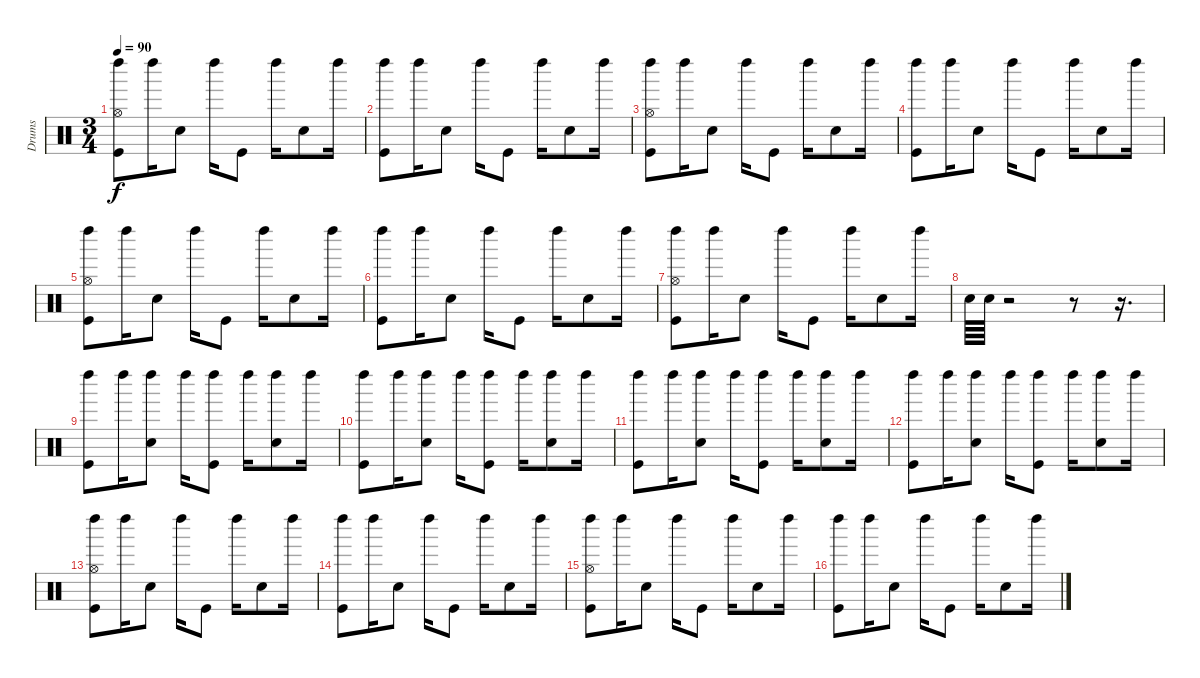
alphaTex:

\track ("Drums" "Drums") {instrument percussion}
\staff {score}
\articulation defaults
\ts (3 4)
\tempo 90
\clef neutral
\ks c
("Left Maraca (hit)" "Hi-Hat (open)" "Kick (hit)").8{dy f} "Left Maraca (hit)".16 "Snare (hit) 2".8 "Left Maraca (hit)".16 "Kick (hit)".8 "Left Maraca (hit)".16 "Snare (hit) 2".8 "Left Maraca (hit)".16 |
("Left Maraca (hit)" "Kick (hit)").8 "Left Maraca (hit)".16 "Snare (hit) 2".8 "Left Maraca (hit)".16 "Kick (hit)".8 "Left Maraca (hit)".16 "Snare (hit) 2".8 "Left Maraca (hit)".16 |
("Left Maraca (hit)" "Hi-Hat (open)" "Kick (hit)").8 "Left Maraca (hit)".16 "Snare (hit) 2".8 "Left Maraca (hit)".16 "Kick (hit)".8 "Left Maraca (hit)".16 "Snare (hit) 2".8 "Left Maraca (hit)".16 |
("Left Maraca (hit)" "Kick (hit)").8 "Left Maraca (hit)".16 "Snare (hit) 2".8 "Left Maraca (hit)".16 "Kick (hit)".8 "Left Maraca (hit)".16 "Snare (hit) 2".8 "Left Maraca (hit)".16 |
("Left Maraca (hit)" "Hi-Hat (open)" "Kick (hit)").8 "Left Maraca (hit)".16 "Snare (hit) 2".8 "Left Maraca (hit)".16 "Kick (hit)".8 "Left Maraca (hit)".16 "Snare (hit) 2".8 "Left Maraca (hit)".16 |
("Left Maraca (hit)" "Kick (hit)").8 "Left Maraca (hit)".16 "Snare (hit) 2".8 "Left Maraca (hit)".16 "Kick (hit)".8 "Left Maraca (hit)".16 "Snare (hit) 2".8 "Left Maraca (hit)".16 |
("Left Maraca (hit)" "Hi-Hat (open)" "Kick (hit)").8 "Left Maraca (hit)".16 "Snare (hit) 2".8 "Left Maraca (hit)".16 "Kick (hit)".8 "Left Maraca (hit)".16 "Snare (hit) 2".8 "Left Maraca (hit)".16 |
"Snare (hit) 2".64 "Snare (hit) 2".64 r.2 r.8 r.16{d} |
("Left Maraca (hit)" "Kick (hit)").8 "Left Maraca (hit)".16 ("Left Maraca (hit)" "Snare (hit) 2").8 "Left Maraca (hit)".16 ("Left Maraca (hit)" "Kick (hit)").8 "Left Maraca (hit)".16 ("Left Maraca (hit)" "Snare (hit) 2").8 "Left Maraca (hit)".16 |
("Left Maraca (hit)" "Kick (hit)").8 "Left Maraca (hit)".16 ("Left Maraca (hit)" "Snare (hit) 2").8 "Left Maraca (hit)".16 ("Left Maraca (hit)" "Kick (hit)").8 "Left Maraca (hit)".16 ("Left Maraca (hit)" "Snare (hit) 2").8 "Left Maraca (hit)".16 |
("Left Maraca (hit)" "Kick (hit)").8 "Left Maraca (hit)".16 ("Left Maraca (hit)" "Snare (hit) 2").8 "Left Maraca (hit)".16 ("Left Maraca (hit)" "Kick (hit)").8 "Left Maraca (hit)".16 ("Left Maraca (hit)" "Snare (hit) 2").8 "Left Maraca (hit)".16 |
("Left Maraca (hit)" "Kick (hit)").8 "Left Maraca (hit)".16 ("Left Maraca (hit)" "Snare (hit) 2").8 "Left Maraca (hit)".16 ("Left Maraca (hit)" "Kick (hit)").8 "Left Maraca (hit)".16 ("Left Maraca (hit)" "Snare (hit) 2").8 "Left Maraca (hit)".16 |
("Left Maraca (hit)" "Hi-Hat (open)" "Kick (hit)").8 "Left Maraca (hit)".16 "Snare (hit) 2".8 "Left Maraca (hit)".16 "Kick (hit)".8 "Left Maraca (hit)".16 "Snare (hit) 2".8 "Left Maraca (hit)".16 |
("Left Maraca (hit)" "Kick (hit)").8 "Left Maraca (hit)".16 "Snare (hit) 2".8 "Left Maraca (hit)".16 "Kick (hit)".8 "Left Maraca (hit)".16 "Snare (hit) 2".8 "Left Maraca (hit)".16 |
("Left Maraca (hit)" "Hi-Hat (open)" "Kick (hit)").8 "Left Maraca (hit)".16 "Snare (hit) 2".8 "Left Maraca (hit)".16 "Kick (hit)".8 "Left Maraca (hit)".16 "Snare (hit) 2".8 "Left Maraca (hit)".16 |
("Left Maraca (hit)" "Kick (hit)").8 "Left Maraca (hit)".16 "Snare (hit) 2".8 "Left Maraca (hit)".16 "Kick (hit)".8 "Left Maraca (hit)".16 "Snare (hit) 2".8 "Left Maraca (hit)".16
